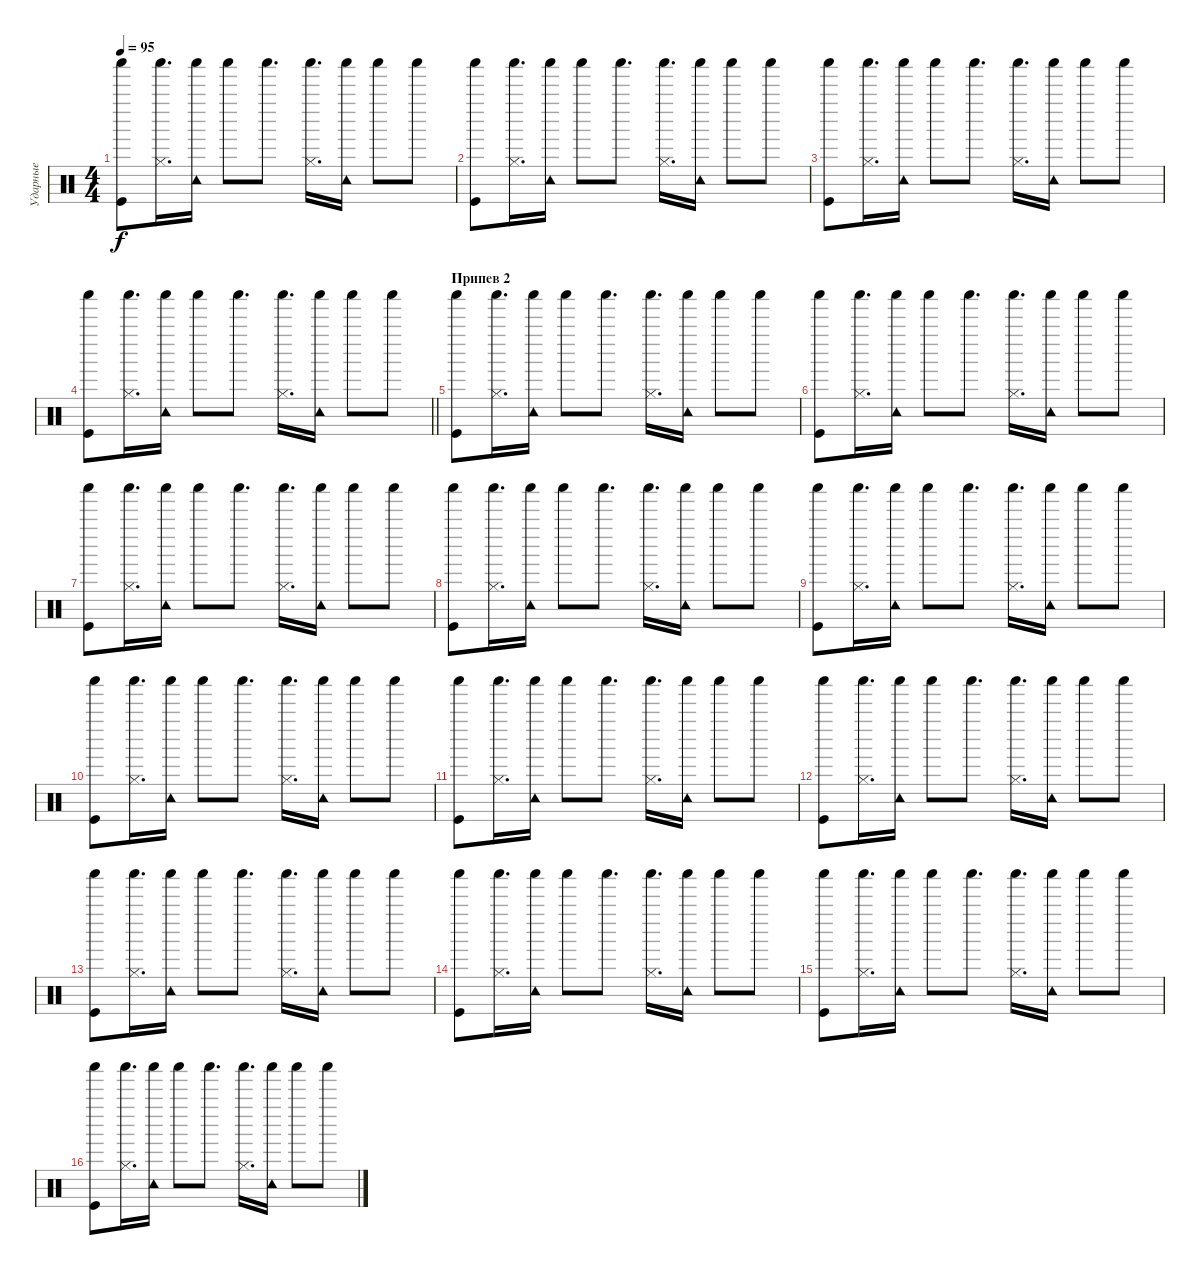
\track ("Ударные" "Ударные") {instrument percussion}
\staff {score}
\articulation defaults
\ts (4 4)
\tempo 95
\clef neutral
\ks c
("Kick (hit)" "Shaker (hit)").8{dy f} ("Hi-Hat (closed)" "Shaker (hit)").16{d} ("Tambourine (hit)" "Shaker (hit)").16 "Shaker (hit)".8 "Shaker (hit)".8{d} ("Hi-Hat (closed)" "Shaker (hit)").16{d} ("Tambourine (hit)" "Shaker (hit)").16 "Shaker (hit)".8 "Shaker (hit)".8 |
("Kick (hit)" "Shaker (hit)").8 ("Hi-Hat (closed)" "Shaker (hit)").16{d} ("Tambourine (hit)" "Shaker (hit)").16 "Shaker (hit)".8 "Shaker (hit)".8{d} ("Hi-Hat (closed)" "Shaker (hit)").16{d} ("Tambourine (hit)" "Shaker (hit)").16 "Shaker (hit)".8 "Shaker (hit)".8 |
("Kick (hit)" "Shaker (hit)").8 ("Hi-Hat (closed)" "Shaker (hit)").16{d} ("Tambourine (hit)" "Shaker (hit)").16 "Shaker (hit)".8 "Shaker (hit)".8{d} ("Hi-Hat (closed)" "Shaker (hit)").16{d} ("Tambourine (hit)" "Shaker (hit)").16 "Shaker (hit)".8 "Shaker (hit)".8 |
\barLineRight lightlight
("Kick (hit)" "Shaker (hit)").8 ("Hi-Hat (closed)" "Shaker (hit)").16{d} ("Tambourine (hit)" "Shaker (hit)").16 "Shaker (hit)".8 "Shaker (hit)".8{d} ("Hi-Hat (closed)" "Shaker (hit)").16{d} ("Tambourine (hit)" "Shaker (hit)").16 "Shaker (hit)".8 "Shaker (hit)".8 |
\section ("" "Припев 2")
("Kick (hit)" "Shaker (hit)").8 ("Hi-Hat (closed)" "Shaker (hit)").16{d} ("Tambourine (hit)" "Shaker (hit)").16 "Shaker (hit)".8 "Shaker (hit)".8{d} ("Hi-Hat (closed)" "Shaker (hit)").16{d} ("Tambourine (hit)" "Shaker (hit)").16 "Shaker (hit)".8 "Shaker (hit)".8 |
("Kick (hit)" "Shaker (hit)").8 ("Hi-Hat (closed)" "Shaker (hit)").16{d} ("Tambourine (hit)" "Shaker (hit)").16 "Shaker (hit)".8 "Shaker (hit)".8{d} ("Hi-Hat (closed)" "Shaker (hit)").16{d} ("Tambourine (hit)" "Shaker (hit)").16 "Shaker (hit)".8 "Shaker (hit)".8 |
("Kick (hit)" "Shaker (hit)").8 ("Hi-Hat (closed)" "Shaker (hit)").16{d} ("Tambourine (hit)" "Shaker (hit)").16 "Shaker (hit)".8 "Shaker (hit)".8{d} ("Hi-Hat (closed)" "Shaker (hit)").16{d} ("Tambourine (hit)" "Shaker (hit)").16 "Shaker (hit)".8 "Shaker (hit)".8 |
("Kick (hit)" "Shaker (hit)").8 ("Hi-Hat (closed)" "Shaker (hit)").16{d} ("Tambourine (hit)" "Shaker (hit)").16 "Shaker (hit)".8 "Shaker (hit)".8{d} ("Hi-Hat (closed)" "Shaker (hit)").16{d} ("Tambourine (hit)" "Shaker (hit)").16 "Shaker (hit)".8 "Shaker (hit)".8 |
("Kick (hit)" "Shaker (hit)").8 ("Hi-Hat (closed)" "Shaker (hit)").16{d} ("Tambourine (hit)" "Shaker (hit)").16 "Shaker (hit)".8 "Shaker (hit)".8{d} ("Hi-Hat (closed)" "Shaker (hit)").16{d} ("Tambourine (hit)" "Shaker (hit)").16 "Shaker (hit)".8 "Shaker (hit)".8 |
("Kick (hit)" "Shaker (hit)").8 ("Hi-Hat (closed)" "Shaker (hit)").16{d} ("Tambourine (hit)" "Shaker (hit)").16 "Shaker (hit)".8 "Shaker (hit)".8{d} ("Hi-Hat (closed)" "Shaker (hit)").16{d} ("Tambourine (hit)" "Shaker (hit)").16 "Shaker (hit)".8 "Shaker (hit)".8 |
("Kick (hit)" "Shaker (hit)").8 ("Hi-Hat (closed)" "Shaker (hit)").16{d} ("Tambourine (hit)" "Shaker (hit)").16 "Shaker (hit)".8 "Shaker (hit)".8{d} ("Hi-Hat (closed)" "Shaker (hit)").16{d} ("Tambourine (hit)" "Shaker (hit)").16 "Shaker (hit)".8 "Shaker (hit)".8 |
("Kick (hit)" "Shaker (hit)").8 ("Hi-Hat (closed)" "Shaker (hit)").16{d} ("Tambourine (hit)" "Shaker (hit)").16 "Shaker (hit)".8 "Shaker (hit)".8{d} ("Hi-Hat (closed)" "Shaker (hit)").16{d} ("Tambourine (hit)" "Shaker (hit)").16 "Shaker (hit)".8 "Shaker (hit)".8 |
("Kick (hit)" "Shaker (hit)").8 ("Hi-Hat (closed)" "Shaker (hit)").16{d} ("Tambourine (hit)" "Shaker (hit)").16 "Shaker (hit)".8 "Shaker (hit)".8{d} ("Hi-Hat (closed)" "Shaker (hit)").16{d} ("Tambourine (hit)" "Shaker (hit)").16 "Shaker (hit)".8 "Shaker (hit)".8 |
("Kick (hit)" "Shaker (hit)").8 ("Hi-Hat (closed)" "Shaker (hit)").16{d} ("Tambourine (hit)" "Shaker (hit)").16 "Shaker (hit)".8 "Shaker (hit)".8{d} ("Hi-Hat (closed)" "Shaker (hit)").16{d} ("Tambourine (hit)" "Shaker (hit)").16 "Shaker (hit)".8 "Shaker (hit)".8 |
("Kick (hit)" "Shaker (hit)").8 ("Hi-Hat (closed)" "Shaker (hit)").16{d} ("Tambourine (hit)" "Shaker (hit)").16 "Shaker (hit)".8 "Shaker (hit)".8{d} ("Hi-Hat (closed)" "Shaker (hit)").16{d} ("Tambourine (hit)" "Shaker (hit)").16 "Shaker (hit)".8 "Shaker (hit)".8 |
("Kick (hit)" "Shaker (hit)").8 ("Hi-Hat (closed)" "Shaker (hit)").16{d} ("Tambourine (hit)" "Shaker (hit)").16 "Shaker (hit)".8 "Shaker (hit)".8{d} ("Hi-Hat (closed)" "Shaker (hit)").16{d} ("Tambourine (hit)" "Shaker (hit)").16 "Shaker (hit)".8 "Shaker (hit)".8
